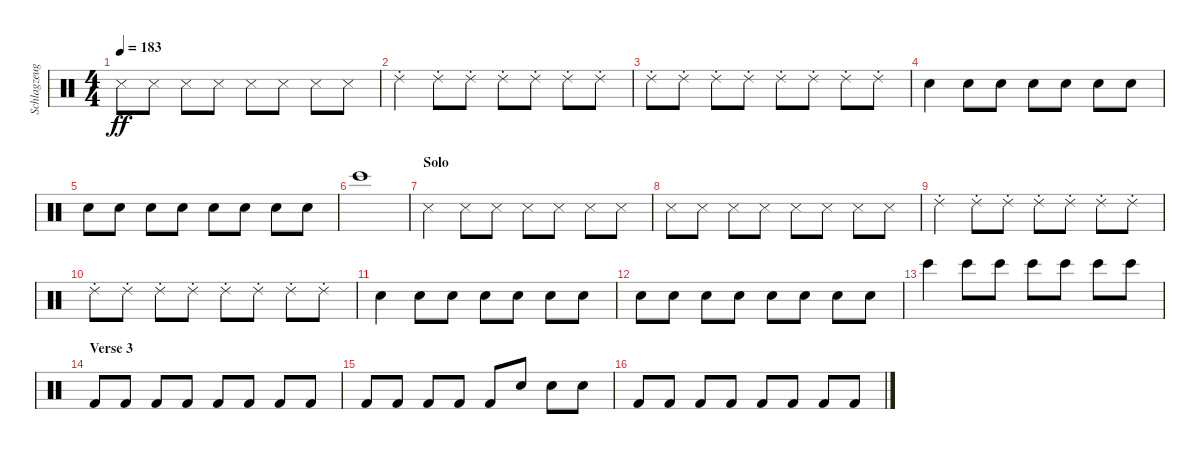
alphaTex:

\track ("Schlagzeug - Bela B." "Schlagzeug") {instrument percussion}
\staff {score}
\articulation defaults
\ts (4 4)
\tempo 183
\clef neutral
\ks c "Metronome (hit)".8{dy ff} "Metronome (hit)".8 "Metronome (hit)".8 "Metronome (hit)".8 "Metronome (hit)".8 "Metronome (hit)".8 "Metronome (hit)".8 "Metronome (hit)".8
|
"Ride (choke) 2".4 "Ride (choke) 2".8 "Ride (choke) 2".8 "Ride (choke) 2".8 "Ride (choke) 2".8 "Ride (choke) 2".8 "Ride (choke) 2".8 |
"Ride (choke) 2".8 "Ride (choke) 2".8 "Ride (choke) 2".8 "Ride (choke) 2".8 "Ride (choke) 2".8 "Ride (choke) 2".8 "Ride (choke) 2".8 "Ride (choke) 2".8 |
"Snare (hit) 2".4 "Snare (hit) 2".8 "Snare (hit) 2".8 "Snare (hit) 2".8 "Snare (hit) 2".8 "Snare (hit) 2".8 "Snare (hit) 2".8 |
"Snare (hit) 2".8 "Snare (hit) 2".8 "Snare (hit) 2".8 "Snare (hit) 2".8 "Snare (hit) 2".8 "Snare (hit) 2".8 "Snare (hit) 2".8 "Snare (hit) 2".8 |
"Bongo High (hit)".1 |
\section ("" "Solo")
"Metronome (hit)".4 "Metronome (hit)".8 "Metronome (hit)".8 "Metronome (hit)".8 "Metronome (hit)".8 "Metronome (hit)".8 "Metronome (hit)".8 |
"Metronome (hit)".8 "Metronome (hit)".8 "Metronome (hit)".8 "Metronome (hit)".8 "Metronome (hit)".8 "Metronome (hit)".8 "Metronome (hit)".8 "Metronome (hit)".8 |
"Ride (choke) 2".4 "Ride (choke) 2".8 "Ride (choke) 2".8 "Ride (choke) 2".8 "Ride (choke) 2".8 "Ride (choke) 2".8 "Ride (choke) 2".8 |
"Ride (choke) 2".8 "Ride (choke) 2".8 "Ride (choke) 2".8 "Ride (choke) 2".8 "Ride (choke) 2".8 "Ride (choke) 2".8 "Ride (choke) 2".8 "Ride (choke) 2".8 |
"Snare (hit) 2".4 "Snare (hit) 2".8 "Snare (hit) 2".8 "Snare (hit) 2".8 "Snare (hit) 2".8 "Snare (hit) 2".8 "Snare (hit) 2".8 |
"Snare (hit) 2".8 "Snare (hit) 2".8 "Snare (hit) 2".8 "Snare (hit) 2".8 "Snare (hit) 2".8 "Snare (hit) 2".8 "Snare (hit) 2".8 "Snare (hit) 2".8 |
"Bongo High (hit)".4 "Bongo High (hit)".8 "Bongo High (hit)".8 "Bongo High (hit)".8 "Bongo High (hit)".8 "Bongo High (hit)".8 "Bongo High (hit)".8 |
\section ("" "Verse 3")
"Kick (hit) 2".8 "Kick (hit) 2".8 "Kick (hit) 2".8 "Kick (hit) 2".8 "Kick (hit) 2".8 "Kick (hit) 2".8 "Kick (hit) 2".8 "Kick (hit) 2".8 |
"Kick (hit) 2".8 "Kick (hit) 2".8 "Kick (hit) 2".8 "Kick (hit) 2".8 "Kick (hit) 2".8 "Metronome (bell)".8 "Metronome (bell)".8 "Metronome (bell)".8 |
"Kick (hit) 2".8 "Kick (hit) 2".8 "Kick (hit) 2".8 "Kick (hit) 2".8 "Kick (hit) 2".8 "Kick (hit) 2".8 "Kick (hit) 2".8 "Kick (hit) 2".8
